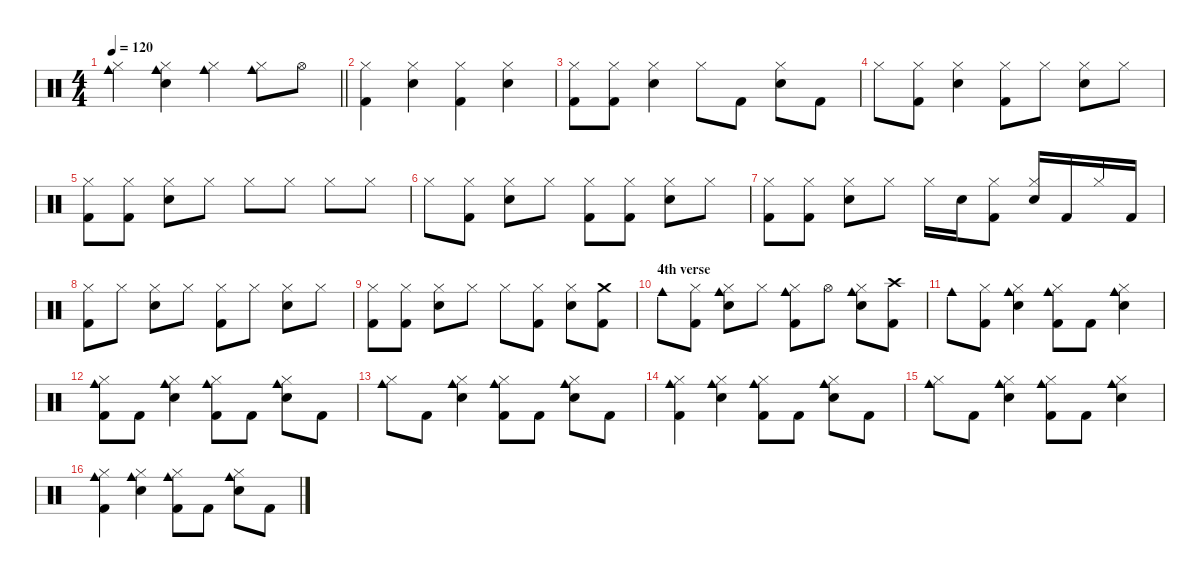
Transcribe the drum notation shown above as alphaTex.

\defaultSystemsLayout 4
\hideDynamics
\bracketExtendMode nobrackets
\singleTrackTrackNamePolicy hidden
\multiTrackTrackNamePolicy hidden
\otherSystemsTrackNameOrientation horizontal
\track ("Percussions" "drm.") {instrument percussion}
\staff {score}
\articulation defaults
\ts (4 4)
\tempo 120
\clef neutral
\barLineRight lightlight
\ks c
("Cowbell medium (hit)" "Hi-Hat (closed)").4{dy f beam Down} ("Cowbell medium (hit)" "Hi-Hat (closed)" "Snare (hit) 2").4{beam Down} ("Cowbell medium (hit)" "Hi-Hat (closed)").4{beam Down} ("Cowbell medium (hit)" "Hi-Hat (closed)").8{beam Down} "Hi-Hat (open)".8{beam Down} |
("Hi-Hat (closed)" "Kick (hit) 2").4{beam Down} ("Hi-Hat (closed)" "Snare (hit) 2").4{beam Down} ("Hi-Hat (closed)" "Kick (hit) 2").4{beam Down} ("Hi-Hat (closed)" "Snare (hit) 2").4{beam Down} |
("Hi-Hat (closed)" "Kick (hit) 2").8{beam Down} ("Hi-Hat (closed)" "Kick (hit) 2").8{beam Down} ("Hi-Hat (closed)" "Snare (hit) 2").4{beam Down} "Hi-Hat (closed)".8{beam Down} "Kick (hit) 2".8{beam Down} ("Hi-Hat (closed)" "Snare (hit) 2").8{beam Down} "Kick (hit) 2".8{beam Down} |
"Hi-Hat (closed)".8{beam Down} ("Hi-Hat (closed)" "Kick (hit) 2").8{beam Down} ("Hi-Hat (closed)" "Snare (hit) 2").4{beam Down} ("Hi-Hat (closed)" "Kick (hit) 2").8{beam Down} "Hi-Hat (closed)".8{beam Down} ("Hi-Hat (closed)" "Snare (hit) 2").8{beam Down} "Hi-Hat (closed)".8{beam Down} |
("Hi-Hat (closed)" "Kick (hit) 2").8{beam Down} ("Hi-Hat (closed)" "Kick (hit) 2").8{beam Down} ("Hi-Hat (closed)" "Snare (hit) 2").8{beam Down} "Hi-Hat (closed)".8{beam Down} "Hi-Hat (closed)".8{beam Down} "Hi-Hat (closed)".8{beam Down} "Hi-Hat (closed)".8{beam Down} "Hi-Hat (closed)".8{beam Down} |
"Hi-Hat (closed)".8{beam Down} ("Hi-Hat (closed)" "Kick (hit) 2").8{beam Down} ("Hi-Hat (closed)" "Snare (hit) 2").8{beam Down} "Hi-Hat (closed)".8{beam Down} ("Hi-Hat (closed)" "Kick (hit) 2").8{beam Down} ("Hi-Hat (closed)" "Kick (hit) 2").8{beam Down} ("Hi-Hat (closed)" "Snare (hit) 2").8{beam Down} "Hi-Hat (closed)".8{beam Down} |
("Hi-Hat (closed)" "Kick (hit) 2").8{beam Down} ("Hi-Hat (closed)" "Kick (hit) 2").8{beam Down} ("Hi-Hat (closed)" "Snare (hit) 2").8{beam Down} "Hi-Hat (closed)".8{beam Down} "Hi-Hat (closed)".16{beam Down} "Snare (hit) 2".16{beam Down} ("Hi-Hat (closed)" "Kick (hit) 2").8{beam Down} ("Hi-Hat (closed)" "Snare (hit) 2").16{beam Up} "Kick (hit) 2".16{beam Up} "Hi-Hat (closed)".16{beam Up} "Kick (hit) 2".16{beam Up} |
("Hi-Hat (closed)" "Kick (hit) 2").8{beam Down} "Hi-Hat (closed)".8{beam Down} ("Hi-Hat (closed)" "Snare (hit) 2").8{beam Down} "Hi-Hat (closed)".8{beam Down} ("Hi-Hat (closed)" "Kick (hit) 2").8{beam Down} "Hi-Hat (closed)".8{beam Down} ("Hi-Hat (closed)" "Snare (hit) 2").8{beam Down} "Hi-Hat (closed)".8{beam Down} |
("Hi-Hat (closed)" "Kick (hit) 2").8{beam Down} ("Hi-Hat (closed)" "Kick (hit) 2").8{beam Down} ("Hi-Hat (closed)" "Snare (hit) 2").8{beam Down} "Hi-Hat (closed)".8{beam Down} "Hi-Hat (closed)".8{beam Down} ("Hi-Hat (closed)" "Kick (hit) 2").8{beam Down} ("Hi-Hat (closed)" "Snare (hit) 2").8{beam Down} ("Crash medium (hit)" "Kick (hit) 2").8{beam Down} |
\section ("" "4th verse")
"Cowbell medium (hit)".8{beam Down} ("Hi-Hat (closed)" "Kick (hit) 2").8{beam Down} ("Cowbell medium (hit)" "Hi-Hat (closed)" "Snare (hit) 2").8{beam Down} "Hi-Hat (closed)".8{beam Down} ("Cowbell medium (hit)" "Hi-Hat (closed)" "Kick (hit) 2").8{beam Down} "Hi-Hat (open)".8{beam Down} ("Cowbell medium (hit)" "Hi-Hat (closed)" "Snare (hit) 2").8{beam Down} ("Crash high (hit)" "Kick (hit) 2").8{beam Down} |
"Cowbell medium (hit)".8{beam Down} ("Hi-Hat (closed)" "Kick (hit) 2").8{beam Down} ("Cowbell medium (hit)" "Hi-Hat (closed)" "Snare (hit) 2").4{beam Down} ("Cowbell medium (hit)" "Hi-Hat (closed)" "Kick (hit) 2").8{beam Down} "Kick (hit) 2".8{beam Down} ("Cowbell medium (hit)" "Hi-Hat (closed)" "Snare (hit) 2").4{beam Down} |
("Cowbell medium (hit)" "Hi-Hat (closed)" "Kick (hit) 2").8{beam Down} "Kick (hit) 2".8{beam Down} ("Cowbell medium (hit)" "Hi-Hat (closed)" "Snare (hit) 2").4{beam Down} ("Cowbell medium (hit)" "Hi-Hat (closed)" "Kick (hit) 2").8{beam Down} "Kick (hit) 2".8{beam Down} ("Cowbell medium (hit)" "Hi-Hat (closed)" "Snare (hit) 2").8{beam Down} "Kick (hit) 2".8{beam Down} |
("Cowbell medium (hit)" "Hi-Hat (closed)").8{beam Down} "Kick (hit) 2".8{beam Down} ("Cowbell medium (hit)" "Hi-Hat (closed)" "Snare (hit) 2").4{beam Down} ("Cowbell medium (hit)" "Hi-Hat (closed)" "Kick (hit) 2").8{beam Down} "Kick (hit) 2".8{beam Down} ("Cowbell medium (hit)" "Hi-Hat (closed)" "Snare (hit) 2").8{beam Down} "Kick (hit) 2".8{beam Down} |
("Cowbell medium (hit)" "Hi-Hat (closed)" "Kick (hit) 2").4{beam Down} ("Cowbell medium (hit)" "Hi-Hat (closed)" "Snare (hit) 2").4{beam Down} ("Cowbell medium (hit)" "Hi-Hat (closed)" "Kick (hit) 2").8{beam Down} "Kick (hit) 2".8{beam Down} ("Cowbell medium (hit)" "Hi-Hat (closed)" "Snare (hit) 2").8{beam Down} "Kick (hit) 2".8{beam Down} |
("Cowbell medium (hit)" "Hi-Hat (closed)").8{beam Down} "Kick (hit) 2".8{beam Down} ("Cowbell medium (hit)" "Hi-Hat (closed)" "Snare (hit) 2").4{beam Down} ("Cowbell medium (hit)" "Hi-Hat (closed)" "Kick (hit) 2").8{beam Down} "Kick (hit) 2".8{beam Down} ("Cowbell medium (hit)" "Hi-Hat (closed)" "Snare (hit) 2").4{beam Down} |
("Cowbell medium (hit)" "Hi-Hat (closed)" "Kick (hit) 2").4{beam Down} ("Cowbell medium (hit)" "Hi-Hat (closed)" "Snare (hit) 2").4{beam Down} ("Cowbell medium (hit)" "Hi-Hat (closed)" "Kick (hit) 2").8{beam Down} "Kick (hit) 2".8{beam Down} ("Cowbell medium (hit)" "Hi-Hat (closed)" "Snare (hit) 2").8{beam Down} "Kick (hit) 2".8{beam Down}
